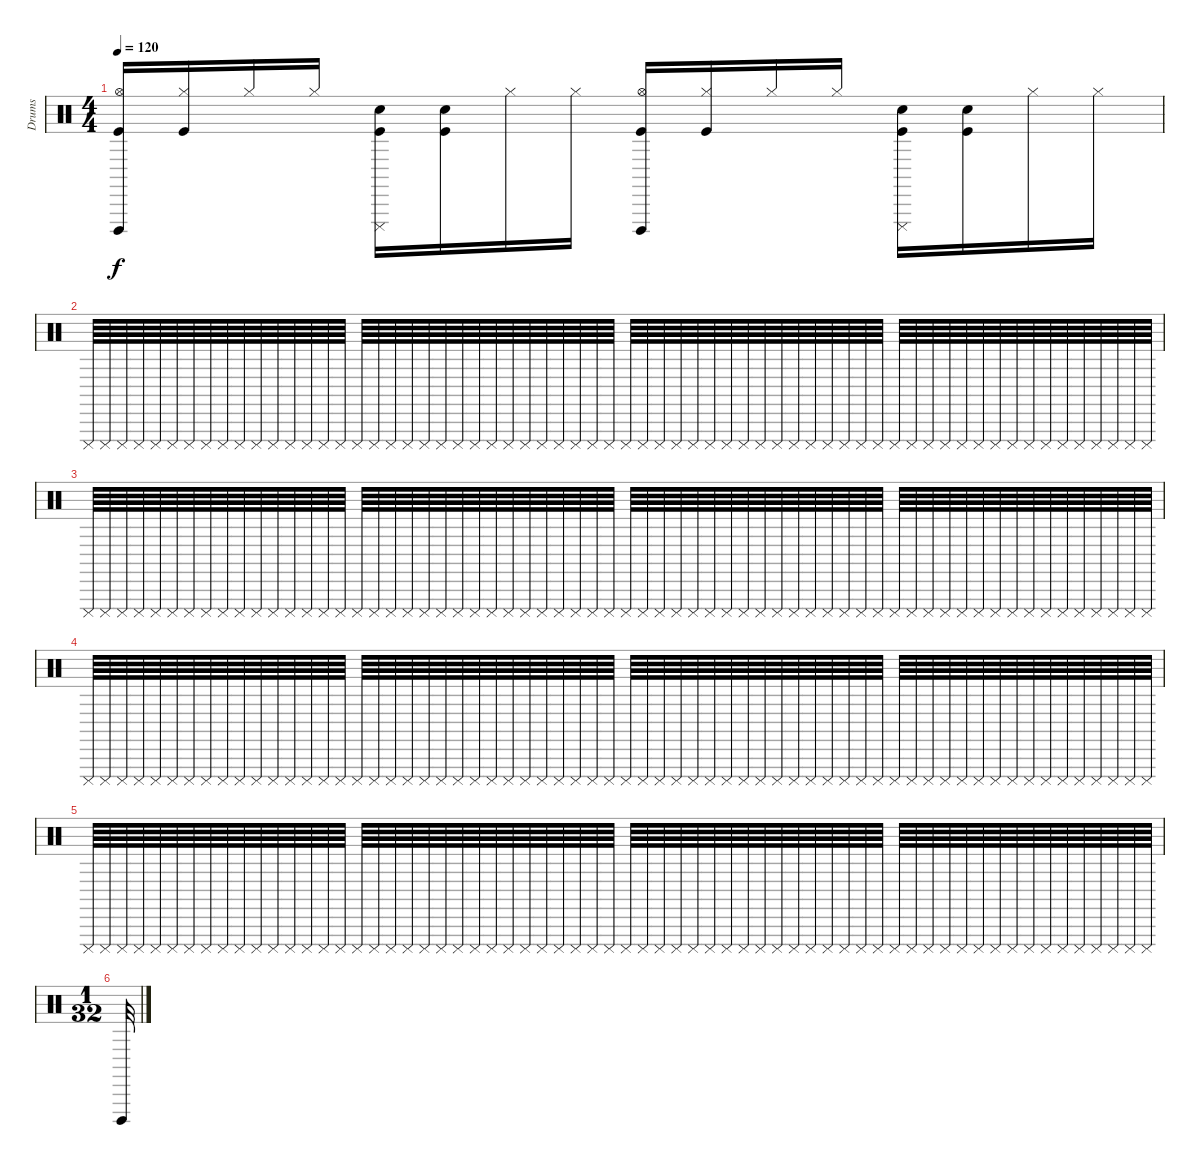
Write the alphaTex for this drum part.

\track ("Drums" "Drums") {instrument percussion}
\staff {score}
\articulation defaults
\ts (4 4)
\tempo 120
\clef neutral
\ks c
("Cuica (open)" "Hi-Hat (open)" "Kick (hit)").16{dy f} ("Hi-Hat (closed)" "Kick (hit)").16 "Hi-Hat (closed)".16 "Hi-Hat (closed)".16 ("Cuica (mute)" "Hand Clap (hit)" "Kick (hit)").16 ("Hand Clap (hit)" "Kick (hit)").16 "Hi-Hat (closed)".16 "Hi-Hat (closed)".16 ("Cuica (open)" "Hi-Hat (open)" "Kick (hit)").16 ("Hi-Hat (closed)" "Kick (hit)").16 "Hi-Hat (closed)".16 "Hi-Hat (closed)".16 ("Cuica (mute)" "Hand Clap (hit)" "Kick (hit)").16 ("Hand Clap (hit)" "Kick (hit)").16 "Hi-Hat (closed)".16 "Hi-Hat (closed)".16 |
"Cuica (mute)".64 "Cuica (mute)".64 "Cuica (mute)".64 "Cuica (mute)".64 "Cuica (mute)".64 "Cuica (mute)".64 "Cuica (mute)".64 "Cuica (mute)".64 "Cuica (mute)".64 "Cuica (mute)".64 "Cuica (mute)".64 "Cuica (mute)".64 "Cuica (mute)".64 "Cuica (mute)".64 "Cuica (mute)".64 "Cuica (mute)".64 "Cuica (mute)".64 "Cuica (mute)".64 "Cuica (mute)".64 "Cuica (mute)".64 "Cuica (mute)".64 "Cuica (mute)".64 "Cuica (mute)".64 "Cuica (mute)".64 "Cuica (mute)".64 "Cuica (mute)".64 "Cuica (mute)".64 "Cuica (mute)".64 "Cuica (mute)".64 "Cuica (mute)".64 "Cuica (mute)".64 "Cuica (mute)".64 "Cuica (mute)".64 "Cuica (mute)".64 "Cuica (mute)".64 "Cuica (mute)".64 "Cuica (mute)".64 "Cuica (mute)".64 "Cuica (mute)".64 "Cuica (mute)".64 "Cuica (mute)".64 "Cuica (mute)".64 "Cuica (mute)".64 "Cuica (mute)".64 "Cuica (mute)".64 "Cuica (mute)".64 "Cuica (mute)".64 "Cuica (mute)".64 "Cuica (mute)".64 "Cuica (mute)".64 "Cuica (mute)".64 "Cuica (mute)".64 "Cuica (mute)".64 "Cuica (mute)".64 "Cuica (mute)".64 "Cuica (mute)".64 "Cuica (mute)".64 "Cuica (mute)".64 "Cuica (mute)".64 "Cuica (mute)".64 "Cuica (mute)".64 "Cuica (mute)".64 "Cuica (mute)".64 "Cuica (mute)".64 |
"Cuica (mute)".64 "Cuica (mute)".64 "Cuica (mute)".64 "Cuica (mute)".64 "Cuica (mute)".64 "Cuica (mute)".64 "Cuica (mute)".64 "Cuica (mute)".64 "Cuica (mute)".64 "Cuica (mute)".64 "Cuica (mute)".64 "Cuica (mute)".64 "Cuica (mute)".64 "Cuica (mute)".64 "Cuica (mute)".64 "Cuica (mute)".64 "Cuica (mute)".64 "Cuica (mute)".64 "Cuica (mute)".64 "Cuica (mute)".64 "Cuica (mute)".64 "Cuica (mute)".64 "Cuica (mute)".64 "Cuica (mute)".64 "Cuica (mute)".64 "Cuica (mute)".64 "Cuica (mute)".64 "Cuica (mute)".64 "Cuica (mute)".64 "Cuica (mute)".64 "Cuica (mute)".64 "Cuica (mute)".64 "Cuica (mute)".64 "Cuica (mute)".64 "Cuica (mute)".64 "Cuica (mute)".64 "Cuica (mute)".64 "Cuica (mute)".64 "Cuica (mute)".64 "Cuica (mute)".64 "Cuica (mute)".64 "Cuica (mute)".64 "Cuica (mute)".64 "Cuica (mute)".64 "Cuica (mute)".64 "Cuica (mute)".64 "Cuica (mute)".64 "Cuica (mute)".64 "Cuica (mute)".64 "Cuica (mute)".64 "Cuica (mute)".64 "Cuica (mute)".64 "Cuica (mute)".64 "Cuica (mute)".64 "Cuica (mute)".64 "Cuica (mute)".64 "Cuica (mute)".64 "Cuica (mute)".64 "Cuica (mute)".64 "Cuica (mute)".64 "Cuica (mute)".64 "Cuica (mute)".64 "Cuica (mute)".64 "Cuica (mute)".64 |
"Cuica (mute)".64 "Cuica (mute)".64 "Cuica (mute)".64 "Cuica (mute)".64 "Cuica (mute)".64 "Cuica (mute)".64 "Cuica (mute)".64 "Cuica (mute)".64 "Cuica (mute)".64 "Cuica (mute)".64 "Cuica (mute)".64 "Cuica (mute)".64 "Cuica (mute)".64 "Cuica (mute)".64 "Cuica (mute)".64 "Cuica (mute)".64 "Cuica (mute)".64 "Cuica (mute)".64 "Cuica (mute)".64 "Cuica (mute)".64 "Cuica (mute)".64 "Cuica (mute)".64 "Cuica (mute)".64 "Cuica (mute)".64 "Cuica (mute)".64 "Cuica (mute)".64 "Cuica (mute)".64 "Cuica (mute)".64 "Cuica (mute)".64 "Cuica (mute)".64 "Cuica (mute)".64 "Cuica (mute)".64 "Cuica (mute)".64 "Cuica (mute)".64 "Cuica (mute)".64 "Cuica (mute)".64 "Cuica (mute)".64 "Cuica (mute)".64 "Cuica (mute)".64 "Cuica (mute)".64 "Cuica (mute)".64 "Cuica (mute)".64 "Cuica (mute)".64 "Cuica (mute)".64 "Cuica (mute)".64 "Cuica (mute)".64 "Cuica (mute)".64 "Cuica (mute)".64 "Cuica (mute)".64 "Cuica (mute)".64 "Cuica (mute)".64 "Cuica (mute)".64 "Cuica (mute)".64 "Cuica (mute)".64 "Cuica (mute)".64 "Cuica (mute)".64 "Cuica (mute)".64 "Cuica (mute)".64 "Cuica (mute)".64 "Cuica (mute)".64 "Cuica (mute)".64 "Cuica (mute)".64 "Cuica (mute)".64 "Cuica (mute)".64 |
"Cuica (mute)".64 "Cuica (mute)".64 "Cuica (mute)".64 "Cuica (mute)".64 "Cuica (mute)".64 "Cuica (mute)".64 "Cuica (mute)".64 "Cuica (mute)".64 "Cuica (mute)".64 "Cuica (mute)".64 "Cuica (mute)".64 "Cuica (mute)".64 "Cuica (mute)".64 "Cuica (mute)".64 "Cuica (mute)".64 "Cuica (mute)".64 "Cuica (mute)".64 "Cuica (mute)".64 "Cuica (mute)".64 "Cuica (mute)".64 "Cuica (mute)".64 "Cuica (mute)".64 "Cuica (mute)".64 "Cuica (mute)".64 "Cuica (mute)".64 "Cuica (mute)".64 "Cuica (mute)".64 "Cuica (mute)".64 "Cuica (mute)".64 "Cuica (mute)".64 "Cuica (mute)".64 "Cuica (mute)".64 "Cuica (mute)".64 "Cuica (mute)".64 "Cuica (mute)".64 "Cuica (mute)".64 "Cuica (mute)".64 "Cuica (mute)".64 "Cuica (mute)".64 "Cuica (mute)".64 "Cuica (mute)".64 "Cuica (mute)".64 "Cuica (mute)".64 "Cuica (mute)".64 "Cuica (mute)".64 "Cuica (mute)".64 "Cuica (mute)".64 "Cuica (mute)".64 "Cuica (mute)".64 "Cuica (mute)".64 "Cuica (mute)".64 "Cuica (mute)".64 "Cuica (mute)".64 "Cuica (mute)".64 "Cuica (mute)".64 "Cuica (mute)".64 "Cuica (mute)".64 "Cuica (mute)".64 "Cuica (mute)".64 "Cuica (mute)".64 "Cuica (mute)".64 "Cuica (mute)".64 "Cuica (mute)".64 "Cuica (mute)".64 |
\ts (1 32)
"Cuica (open)".32
